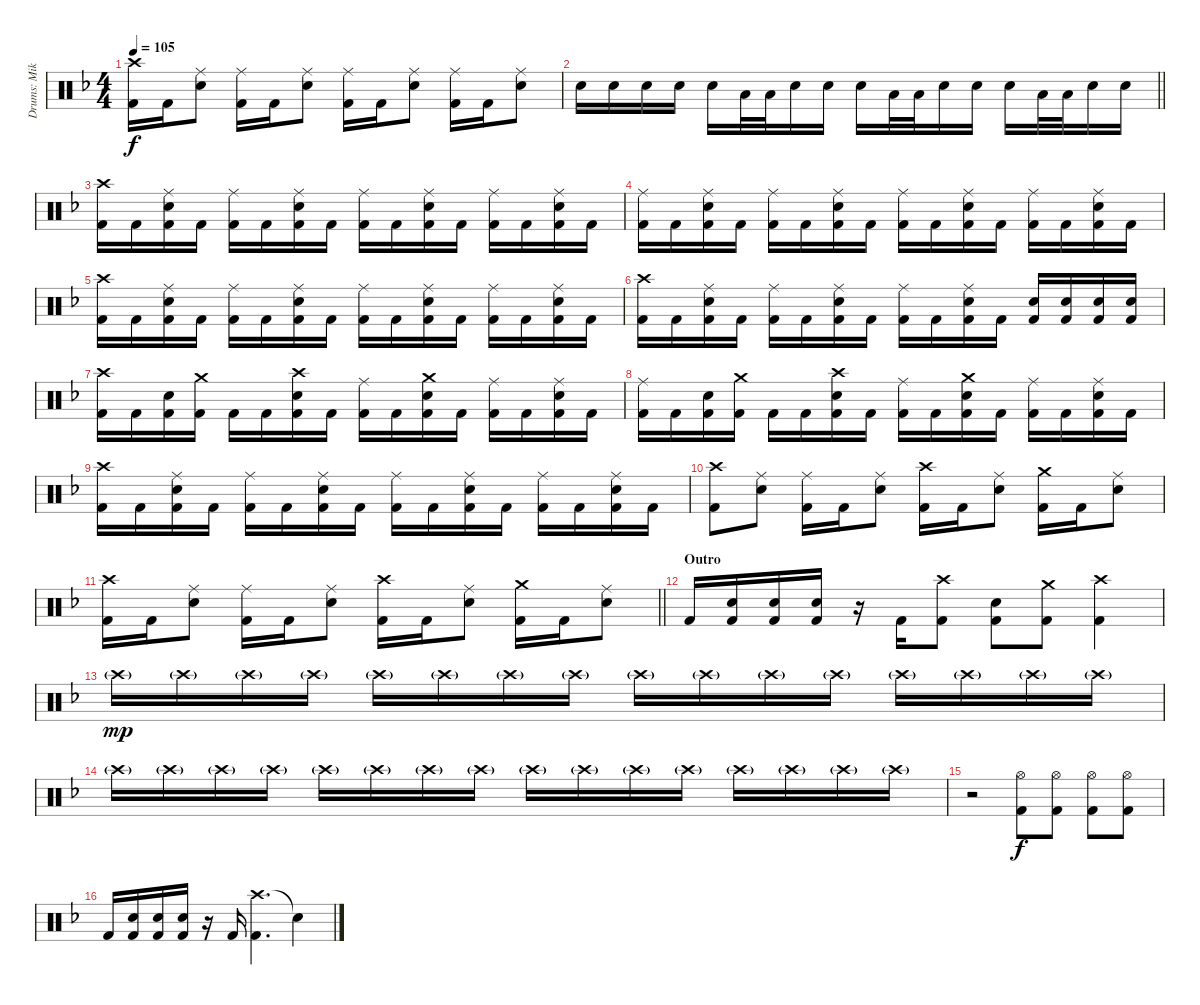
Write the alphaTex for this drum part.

\track ("Drums: Mikko Korsbäck" "Drums: Mik") {instrument percussion}
\staff {score}
\articulation defaults
\ts (4 4)
\tempo 105
\clef neutral
\ks dminor
("Crash high (hit)" "Kick (hit) 2").16{dy f} "Kick (hit) 2".16 ("Ride (middle)" "Electric Snare (hit)").8 ("Ride (middle)" "Kick (hit) 2").16 "Kick (hit) 2".16 ("Ride (middle)" "Electric Snare (hit)").8 ("Ride (middle)" "Kick (hit) 2").16 "Kick (hit) 2".16 ("Ride (middle)" "Electric Snare (hit)").8 ("Ride (middle)" "Kick (hit) 2").16 "Kick (hit) 2".16 ("Ride (middle)" "Electric Snare (hit)").8 |
\barLineRight lightlight "Electric Snare (hit)".16 "Electric Snare (hit)".16 "Electric Snare (hit)".16 "Electric Snare (hit)".16 "Electric Snare (hit)".16 "Low Tom (hit)".32 "Low Tom (hit)".32 "Electric Snare (hit)".16 "Electric Snare (hit)".16 "Electric Snare (hit)".16 "Low Tom (hit)".32 "Low Tom (hit)".32 "Electric Snare (hit)".16 "Electric Snare (hit)".16 "Electric Snare (hit)".16 "Low Tom (hit)".32 "Low Tom (hit)".32 "Electric Snare (hit)".16 "Electric Snare (hit)".16
|
("Crash high (hit)" "Kick (hit) 2").16 "Kick (hit) 2".16 ("Ride (middle)" "Electric Snare (hit)" "Kick (hit) 2").16 "Kick (hit) 2".16 ("Ride (middle)" "Kick (hit) 2").16 "Kick (hit) 2".16 ("Ride (middle)" "Electric Snare (hit)" "Kick (hit) 2").16 "Kick (hit) 2".16 ("Ride (middle)" "Kick (hit) 2").16 "Kick (hit) 2".16 ("Ride (middle)" "Electric Snare (hit)" "Kick (hit) 2").16 "Kick (hit) 2".16 ("Ride (middle)" "Kick (hit) 2").16 "Kick (hit) 2".16 ("Ride (middle)" "Electric Snare (hit)" "Kick (hit) 2").16 "Kick (hit) 2".16 |
("Ride (middle)" "Kick (hit) 2").16 "Kick (hit) 2".16 ("Ride (middle)" "Electric Snare (hit)" "Kick (hit) 2").16 "Kick (hit) 2".16 ("Ride (middle)" "Kick (hit) 2").16 "Kick (hit) 2".16 ("Ride (middle)" "Electric Snare (hit)" "Kick (hit) 2").16 "Kick (hit) 2".16 ("Ride (middle)" "Kick (hit) 2").16 "Kick (hit) 2".16 ("Ride (middle)" "Electric Snare (hit)" "Kick (hit) 2").16 "Kick (hit) 2".16 ("Ride (middle)" "Kick (hit) 2").16 "Kick (hit) 2".16 ("Ride (middle)" "Electric Snare (hit)" "Kick (hit) 2").16 "Kick (hit) 2".16 |
("Crash high (hit)" "Kick (hit) 2").16 "Kick (hit) 2".16 ("Ride (middle)" "Electric Snare (hit)" "Kick (hit) 2").16 "Kick (hit) 2".16 ("Ride (middle)" "Kick (hit) 2").16 "Kick (hit) 2".16 ("Ride (middle)" "Electric Snare (hit)" "Kick (hit) 2").16 "Kick (hit) 2".16 ("Ride (middle)" "Kick (hit) 2").16 "Kick (hit) 2".16 ("Ride (middle)" "Electric Snare (hit)" "Kick (hit) 2").16 "Kick (hit) 2".16 ("Ride (middle)" "Kick (hit) 2").16 "Kick (hit) 2".16 ("Ride (middle)" "Electric Snare (hit)" "Kick (hit) 2").16 "Kick (hit) 2".16 |
("Crash high (hit)" "Kick (hit) 2").16 "Kick (hit) 2".16 ("Ride (middle)" "Electric Snare (hit)" "Kick (hit) 2").16 "Kick (hit) 2".16 ("Ride (middle)" "Kick (hit) 2").16 "Kick (hit) 2".16 ("Ride (middle)" "Electric Snare (hit)" "Kick (hit) 2").16 "Kick (hit) 2".16 ("Ride (middle)" "Kick (hit) 2").16 "Kick (hit) 2".16 ("Ride (middle)" "Electric Snare (hit)" "Kick (hit) 2").16 "Kick (hit) 2".16 ("Electric Snare (hit)" "Kick (hit) 2").16 ("Electric Snare (hit)" "Kick (hit) 2").16 ("Electric Snare (hit)" "Kick (hit) 2").16 ("Electric Snare (hit)" "Kick (hit) 2").16 |
("Crash high (hit)" "Kick (hit) 2").16 "Kick (hit) 2".16 ("Electric Snare (hit)" "Kick (hit) 2").16 ("Crash medium (hit)" "Kick (hit) 2").16 "Kick (hit) 2".16 "Kick (hit) 2".16 ("Crash high (hit)" "Electric Snare (hit)" "Kick (hit) 2").16 "Kick (hit) 2".16 ("Ride (middle)" "Kick (hit) 2").16 "Kick (hit) 2".16 ("Crash medium (hit)" "Electric Snare (hit)" "Kick (hit) 2").16 "Kick (hit) 2".16 ("Ride (middle)" "Kick (hit) 2").16 "Kick (hit) 2".16 ("Ride (middle)" "Electric Snare (hit)" "Kick (hit) 2").16 "Kick (hit) 2".16 |
("Ride (middle)" "Kick (hit) 2").16 "Kick (hit) 2".16 ("Electric Snare (hit)" "Kick (hit) 2").16 ("Crash medium (hit)" "Kick (hit) 2").16 "Kick (hit) 2".16 "Kick (hit) 2".16 ("Crash high (hit)" "Electric Snare (hit)" "Kick (hit) 2").16 "Kick (hit) 2".16 ("Ride (middle)" "Kick (hit) 2").16 "Kick (hit) 2".16 ("Crash medium (hit)" "Electric Snare (hit)" "Kick (hit) 2").16 "Kick (hit) 2".16 ("Ride (middle)" "Kick (hit) 2").16 "Kick (hit) 2".16 ("Ride (middle)" "Electric Snare (hit)" "Kick (hit) 2").16 "Kick (hit) 2".16 |
("Crash high (hit)" "Kick (hit) 2").16 "Kick (hit) 2".16 ("Ride (middle)" "Electric Snare (hit)" "Kick (hit) 2").16 "Kick (hit) 2".16 ("Ride (middle)" "Kick (hit) 2").16 "Kick (hit) 2".16 ("Ride (middle)" "Electric Snare (hit)" "Kick (hit) 2").16 "Kick (hit) 2".16 ("Ride (middle)" "Kick (hit) 2").16 "Kick (hit) 2".16 ("Ride (middle)" "Electric Snare (hit)" "Kick (hit) 2").16 "Kick (hit) 2".16 ("Ride (middle)" "Kick (hit) 2").16 "Kick (hit) 2".16 ("Ride (middle)" "Electric Snare (hit)" "Kick (hit) 2").16 "Kick (hit) 2".16 |
("Crash high (hit)" "Kick (hit) 2").8 ("Ride (middle)" "Electric Snare (hit)").8 ("Ride (middle)" "Kick (hit) 2").16 "Kick (hit) 2".16 ("Ride (middle)" "Electric Snare (hit)").8 ("Crash high (hit)" "Kick (hit) 2").16 "Kick (hit) 2".16 ("Ride (middle)" "Electric Snare (hit)").8 ("Crash medium (hit)" "Kick (hit) 2").16 "Kick (hit) 2".16 ("Ride (middle)" "Electric Snare (hit)").8 |
\barLineRight lightlight
("Crash high (hit)" "Kick (hit) 2").16 "Kick (hit) 2".16 ("Ride (middle)" "Electric Snare (hit)").8 ("Ride (middle)" "Kick (hit) 2").16 "Kick (hit) 2".16 ("Ride (middle)" "Electric Snare (hit)").8 ("Crash high (hit)" "Kick (hit) 2").16 "Kick (hit) 2".16 ("Ride (middle)" "Electric Snare (hit)").8 ("Crash medium (hit)" "Kick (hit) 2").16 "Kick (hit) 2".16 ("Ride (middle)" "Electric Snare (hit)").8 |
\section ("" "Outro")
"Kick (hit) 2".16 ("Electric Snare (hit)" "Kick (hit) 2").16 ("Electric Snare (hit)" "Kick (hit) 2").16 ("Electric Snare (hit)" "Kick (hit) 2").16 r.16 "Kick (hit) 2".16 ("Crash high (hit)" "Kick (hit) 2").8 ("Electric Snare (hit)" "Kick (hit) 2").8 ("Crash medium (hit)" "Kick (hit) 2").8 ("Crash high (hit)" "Kick (hit) 2").4 |
"Crash high (hit)"{g}.16{dy mp} "Crash high (hit)"{g}.16 "Crash high (hit)"{g}.16 "Crash high (hit)"{g}.16 "Crash high (hit)"{g}.16 "Crash high (hit)"{g}.16 "Crash high (hit)"{g}.16 "Crash high (hit)"{g}.16 "Crash high (hit)"{g}.16 "Crash high (hit)"{g}.16 "Crash high (hit)"{g}.16 "Crash high (hit)"{g}.16 "Crash high (hit)"{g}.16 "Crash high (hit)"{g}.16 "Crash high (hit)"{g}.16 "Crash high (hit)"{g}.16 |
"Crash high (hit)"{g}.16 "Crash high (hit)"{g}.16 "Crash high (hit)"{g}.16 "Crash high (hit)"{g}.16 "Crash high (hit)"{g}.16 "Crash high (hit)"{g}.16 "Crash high (hit)"{g}.16 "Crash high (hit)"{g}.16 "Crash high (hit)"{g}.16 "Crash high (hit)"{g}.16 "Crash high (hit)"{g}.16 "Crash high (hit)"{g}.16 "Crash high (hit)"{g}.16 "Crash high (hit)"{g}.16 "Crash high (hit)"{g}.16 "Crash high (hit)"{g}.16 |
r.2 ("Hi-Hat (open)" "Kick (hit) 2").8{dy f} ("Hi-Hat (open)" "Kick (hit) 2").8 ("Hi-Hat (open)" "Kick (hit) 2").8 ("Hi-Hat (open)" "Kick (hit) 2").8 |
"Kick (hit) 2".16 ("Electric Snare (hit)" "Kick (hit) 2").16 ("Electric Snare (hit)" "Kick (hit) 2").16 ("Electric Snare (hit)" "Kick (hit) 2").16 r.16 "Kick (hit) 2".16 ("Crash high (hit)" "Kick (hit) 2").4{d} "Snare (hit)"{t}.4
